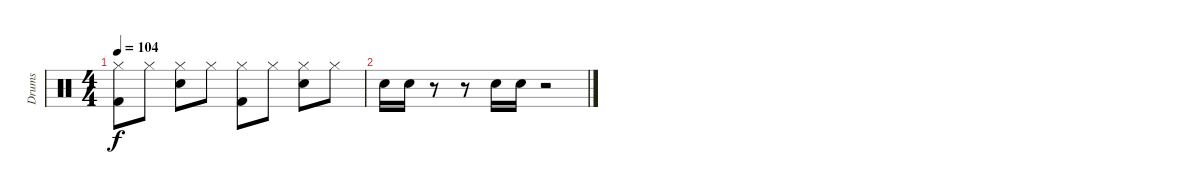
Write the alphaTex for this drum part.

\track ("Drums" "Drums") {instrument percussion}
\staff {score}
\articulation defaults
\ts (4 4)
\tempo 104
\clef neutral
\ks c
("Hi-Hat (closed)" "Kick (hit) 2").8{dy f} "Hi-Hat (closed)".8 ("Hi-Hat (closed)" "Snare (hit) 2").8 "Hi-Hat (closed)".8 ("Hi-Hat (closed)" "Kick (hit) 2").8 "Hi-Hat (closed)".8 ("Hi-Hat (closed)" "Snare (hit) 2").8 "Hi-Hat (closed)".8 |
"Snare (hit) 2".16 "Snare (hit) 2".16 r.8 r.8 "Snare (hit) 2".16 "Snare (hit) 2".16 r.2
